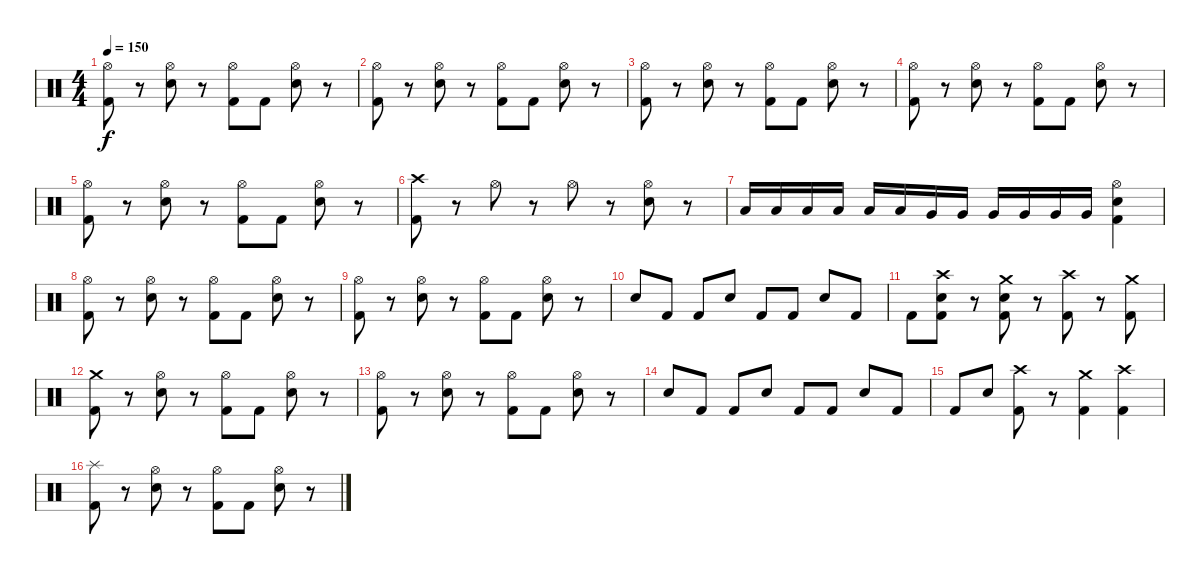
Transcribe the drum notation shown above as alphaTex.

\track "" {instrument percussion}
\staff {score}
\articulation defaults
\ts (4 4)
\tempo 150
\clef neutral
\ks c
("Hi-Hat (open)" "Kick (hit) 2").8{dy f} r.8 ("Hi-Hat (open)" "Electric Snare (hit)").8 r.8 ("Hi-Hat (open)" "Kick (hit) 2").8 "Kick (hit) 2".8 ("Hi-Hat (open)" "Electric Snare (hit)").8 r.8 |
("Hi-Hat (open)" "Kick (hit) 2").8 r.8 ("Hi-Hat (open)" "Electric Snare (hit)").8 r.8 ("Hi-Hat (open)" "Kick (hit) 2").8 "Kick (hit) 2".8 ("Hi-Hat (open)" "Electric Snare (hit)").8 r.8 |
("Hi-Hat (open)" "Kick (hit) 2").8 r.8 ("Hi-Hat (open)" "Electric Snare (hit)").8 r.8 ("Hi-Hat (open)" "Kick (hit) 2").8 "Kick (hit) 2".8 ("Hi-Hat (open)" "Electric Snare (hit)").8 r.8 |
("Hi-Hat (open)" "Kick (hit) 2").8 r.8 ("Hi-Hat (open)" "Electric Snare (hit)").8 r.8 ("Hi-Hat (open)" "Kick (hit) 2").8 "Kick (hit) 2".8 ("Hi-Hat (open)" "Electric Snare (hit)").8 r.8 |
("Hi-Hat (open)" "Kick (hit) 2").8 r.8 ("Hi-Hat (open)" "Electric Snare (hit)").8 r.8 ("Hi-Hat (open)" "Kick (hit) 2").8 "Kick (hit) 2".8 ("Hi-Hat (open)" "Electric Snare (hit)").8 r.8 |
("Crash high (hit)" "Kick (hit) 2").8 r.8 "Hi-Hat (open)".8 r.8 "Hi-Hat (open)".8 r.8 ("Hi-Hat (open)" "Electric Snare (hit)").8 r.8 |
"Low Tom (hit)".16 "Low Tom (hit)".16 "Low Tom (hit)".16 "Low Tom (hit)".16 "Low Tom (hit)".16 "Low Tom (hit)".16 "Very Low Tom (hit)".16 "Very Low Tom (hit)".16 "Very Low Tom (hit)".16 "Very Low Tom (hit)".16 "Very Low Tom (hit)".16 "Very Low Tom (hit)".16 ("Hi-Hat (open)" "Electric Snare (hit)" "Kick (hit) 2").4 |
("Hi-Hat (open)" "Kick (hit) 2").8 r.8 ("Hi-Hat (open)" "Electric Snare (hit)").8 r.8 ("Hi-Hat (open)" "Kick (hit) 2").8 "Kick (hit) 2".8 ("Hi-Hat (open)" "Electric Snare (hit)").8 r.8 |
("Hi-Hat (open)" "Kick (hit) 2").8 r.8 ("Hi-Hat (open)" "Electric Snare (hit)").8 r.8 ("Hi-Hat (open)" "Kick (hit) 2").8 "Kick (hit) 2".8 ("Hi-Hat (open)" "Electric Snare (hit)").8 r.8 |
"Electric Snare (hit)".8 "Kick (hit) 2".8 "Kick (hit) 2".8 "Electric Snare (hit)".8 "Kick (hit) 2".8 "Kick (hit) 2".8 "Electric Snare (hit)".8 "Kick (hit) 2".8 |
"Kick (hit) 2".8 ("Crash high (hit)" "Electric Snare (hit)" "Kick (hit) 2").8 r.8 ("Crash medium (hit)" "Electric Snare (hit)" "Kick (hit) 2").8 r.8 ("Crash high (hit)" "Kick (hit) 2").8 r.8 ("Crash medium (hit)" "Kick (hit) 2").8 |
("Crash medium (hit)" "Kick (hit) 2").8 r.8 ("Hi-Hat (open)" "Electric Snare (hit)").8 r.8 ("Hi-Hat (open)" "Kick (hit) 2").8 "Kick (hit) 2".8 ("Hi-Hat (open)" "Electric Snare (hit)").8 r.8 |
("Hi-Hat (open)" "Kick (hit) 2").8 r.8 ("Hi-Hat (open)" "Electric Snare (hit)").8 r.8 ("Hi-Hat (open)" "Kick (hit) 2").8 "Kick (hit) 2".8 ("Hi-Hat (open)" "Electric Snare (hit)").8 r.8 |
"Electric Snare (hit)".8 "Kick (hit) 2".8 "Kick (hit) 2".8 "Electric Snare (hit)".8 "Kick (hit) 2".8 "Kick (hit) 2".8 "Electric Snare (hit)".8 "Kick (hit) 2".8 |
"Kick (hit) 2".8 "Electric Snare (hit)".8 ("Crash high (hit)" "Kick (hit) 2").8 r.8 ("Crash medium (hit)" "Kick (hit) 2").4 ("Crash high (hit)" "Kick (hit) 2").4 |
("Splash (hit)" "Kick (hit) 2").8 r.8 ("Hi-Hat (open)" "Electric Snare (hit)").8 r.8 ("Hi-Hat (open)" "Kick (hit) 2").8 "Kick (hit) 2".8 ("Hi-Hat (open)" "Electric Snare (hit)").8 r.8
